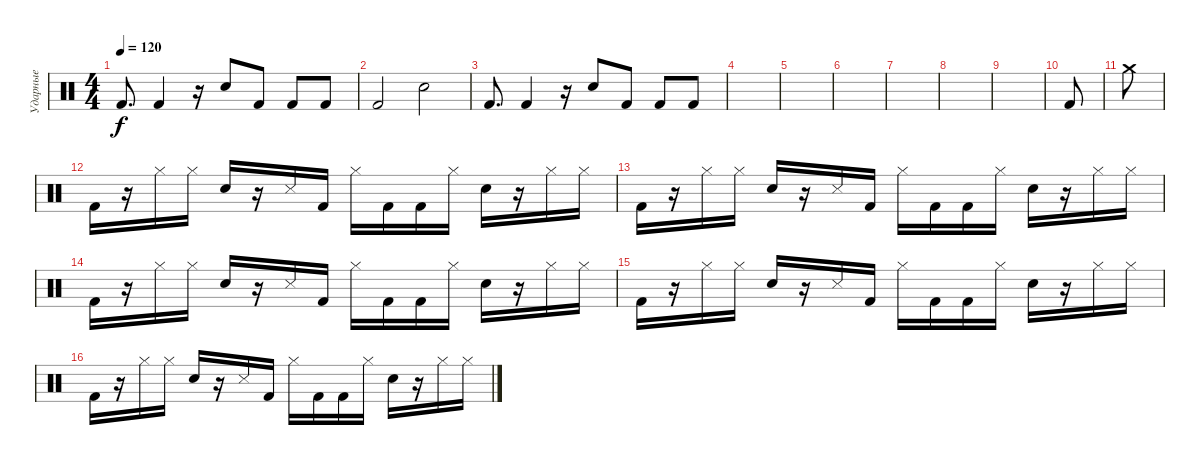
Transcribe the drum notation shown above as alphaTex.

\track ("Ударные" "Ударные") {instrument percussion}
\staff {score}
\articulation defaults
\ts (4 4)
\tempo 120
\clef neutral
\ks c "Kick (hit) 2".8{d dy f} "Kick (hit) 2".4
r.16 "Electric Snare (hit)".8 "Kick (hit) 2".8 "Kick (hit) 2".8 "Kick (hit) 2".8 |
"Kick (hit) 2".2 "Electric Snare (hit)".2 |
"Kick (hit) 2".8{d} "Kick (hit) 2".4 r.16 "Electric Snare (hit)".8 "Kick (hit) 2".8 "Kick (hit) 2".8 "Kick (hit) 2".8 |
|
|
|
|
|
|
"Kick (hit) 2".8 |
"Crash medium (hit)".8 |
"Kick (hit) 2".16 r.16 "Hi-Hat (closed)".16 "Hi-Hat (closed)".16 "Electric Snare (hit)".16 r.16 "Snare (side stick) 3".16 "Kick (hit) 2".16 "Hi-Hat (closed)".16 "Kick (hit) 2".16 "Kick (hit) 2".16 "Hi-Hat (closed)".16 "Electric Snare (hit)".16 r.16 "Hi-Hat (closed)".16 "Hi-Hat (closed)".16 |
"Kick (hit) 2".16 r.16 "Hi-Hat (closed)".16 "Hi-Hat (closed)".16 "Electric Snare (hit)".16 r.16 "Snare (side stick) 3".16 "Kick (hit) 2".16 "Hi-Hat (closed)".16 "Kick (hit) 2".16 "Kick (hit) 2".16 "Hi-Hat (closed)".16 "Electric Snare (hit)".16 r.16 "Hi-Hat (closed)".16 "Hi-Hat (closed)".16 |
"Kick (hit) 2".16 r.16 "Hi-Hat (closed)".16 "Hi-Hat (closed)".16 "Electric Snare (hit)".16 r.16 "Snare (side stick) 3".16 "Kick (hit) 2".16 "Hi-Hat (closed)".16 "Kick (hit) 2".16 "Kick (hit) 2".16 "Hi-Hat (closed)".16 "Electric Snare (hit)".16 r.16 "Hi-Hat (closed)".16 "Hi-Hat (closed)".16 |
"Kick (hit) 2".16 r.16 "Hi-Hat (closed)".16 "Hi-Hat (closed)".16 "Electric Snare (hit)".16 r.16 "Snare (side stick) 3".16 "Kick (hit) 2".16 "Hi-Hat (closed)".16 "Kick (hit) 2".16 "Kick (hit) 2".16 "Hi-Hat (closed)".16 "Electric Snare (hit)".16 r.16 "Hi-Hat (closed)".16 "Hi-Hat (closed)".16 |
"Kick (hit) 2".16 r.16 "Hi-Hat (closed)".16 "Hi-Hat (closed)".16 "Electric Snare (hit)".16 r.16 "Snare (side stick) 3".16 "Kick (hit) 2".16 "Hi-Hat (closed)".16 "Kick (hit) 2".16 "Kick (hit) 2".16 "Hi-Hat (closed)".16 "Electric Snare (hit)".16 r.16 "Hi-Hat (closed)".16 "Hi-Hat (closed)".16
